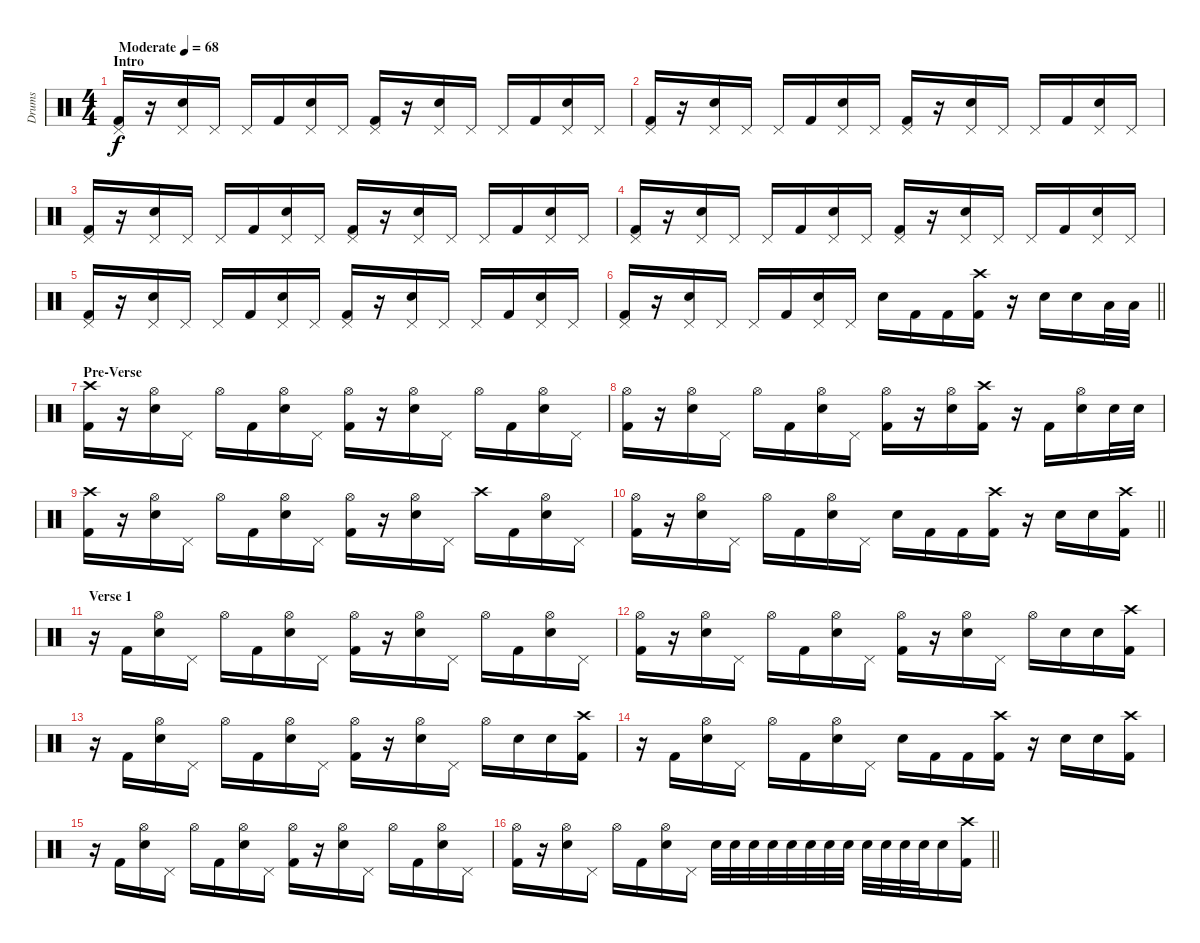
\track ("Drums" "Drums") {instrument percussion}
\staff {score}
\articulation defaults
\ts (4 4)
\section ("" "Intro")
\tempo (68 "Moderate")
\clef neutral
\ks c
("Pedal Hi-Hat (hit)" "Kick (hit) 2").16{dy f} r.16 ("Pedal Hi-Hat (hit)" "Snare (hit) 2").16 "Pedal Hi-Hat (hit)".16 "Pedal Hi-Hat (hit)".16 "Kick (hit) 2".16 ("Pedal Hi-Hat (hit)" "Snare (hit) 2").16 "Pedal Hi-Hat (hit)".16 ("Pedal Hi-Hat (hit)" "Kick (hit) 2").16 r.16 ("Pedal Hi-Hat (hit)" "Snare (hit) 2").16 "Pedal Hi-Hat (hit)".16 "Pedal Hi-Hat (hit)".16 "Kick (hit) 2".16 ("Pedal Hi-Hat (hit)" "Snare (hit) 2").16 "Pedal Hi-Hat (hit)".16 |
("Pedal Hi-Hat (hit)" "Kick (hit) 2").16 r.16 ("Pedal Hi-Hat (hit)" "Snare (hit) 2").16 "Pedal Hi-Hat (hit)".16 "Pedal Hi-Hat (hit)".16 "Kick (hit) 2".16 ("Pedal Hi-Hat (hit)" "Snare (hit) 2").16 "Pedal Hi-Hat (hit)".16 ("Pedal Hi-Hat (hit)" "Kick (hit) 2").16 r.16 ("Pedal Hi-Hat (hit)" "Snare (hit) 2").16 "Pedal Hi-Hat (hit)".16 "Pedal Hi-Hat (hit)".16 "Kick (hit) 2".16 ("Pedal Hi-Hat (hit)" "Snare (hit) 2").16 "Pedal Hi-Hat (hit)".16 |
("Pedal Hi-Hat (hit)" "Kick (hit) 2").16 r.16 ("Pedal Hi-Hat (hit)" "Snare (hit) 2").16 "Pedal Hi-Hat (hit)".16 "Pedal Hi-Hat (hit)".16 "Kick (hit) 2".16 ("Pedal Hi-Hat (hit)" "Snare (hit) 2").16 "Pedal Hi-Hat (hit)".16 ("Pedal Hi-Hat (hit)" "Kick (hit) 2").16 r.16 ("Pedal Hi-Hat (hit)" "Snare (hit) 2").16 "Pedal Hi-Hat (hit)".16 "Pedal Hi-Hat (hit)".16 "Kick (hit) 2".16 ("Pedal Hi-Hat (hit)" "Snare (hit) 2").16 "Pedal Hi-Hat (hit)".16 |
("Pedal Hi-Hat (hit)" "Kick (hit) 2").16 r.16 ("Pedal Hi-Hat (hit)" "Snare (hit) 2").16 "Pedal Hi-Hat (hit)".16 "Pedal Hi-Hat (hit)".16 "Kick (hit) 2".16 ("Pedal Hi-Hat (hit)" "Snare (hit) 2").16 "Pedal Hi-Hat (hit)".16 ("Pedal Hi-Hat (hit)" "Kick (hit) 2").16 r.16 ("Pedal Hi-Hat (hit)" "Snare (hit) 2").16 "Pedal Hi-Hat (hit)".16 "Pedal Hi-Hat (hit)".16 "Kick (hit) 2".16 ("Pedal Hi-Hat (hit)" "Snare (hit) 2").16 "Pedal Hi-Hat (hit)".16 |
("Pedal Hi-Hat (hit)" "Kick (hit) 2").16 r.16 ("Pedal Hi-Hat (hit)" "Snare (hit) 2").16 "Pedal Hi-Hat (hit)".16 "Pedal Hi-Hat (hit)".16 "Kick (hit) 2".16 ("Pedal Hi-Hat (hit)" "Snare (hit) 2").16 "Pedal Hi-Hat (hit)".16 ("Pedal Hi-Hat (hit)" "Kick (hit) 2").16 r.16 ("Pedal Hi-Hat (hit)" "Snare (hit) 2").16 "Pedal Hi-Hat (hit)".16 "Pedal Hi-Hat (hit)".16 "Kick (hit) 2".16 ("Pedal Hi-Hat (hit)" "Snare (hit) 2").16 "Pedal Hi-Hat (hit)".16 |
\barLineRight lightlight
("Pedal Hi-Hat (hit)" "Kick (hit) 2").16 r.16 ("Pedal Hi-Hat (hit)" "Snare (hit) 2").16 "Pedal Hi-Hat (hit)".16 "Pedal Hi-Hat (hit)".16 "Kick (hit) 2".16 ("Pedal Hi-Hat (hit)" "Snare (hit) 2").16 "Pedal Hi-Hat (hit)".16 "Snare (hit) 2".16 "Kick (hit) 2".16 "Kick (hit) 2".16 ("Crash high (hit)" "Kick (hit) 2").16 r.16 "Snare (hit) 2".16 "Snare (hit) 2".16 "Low Tom (hit)".32 "Low Tom (hit)".32 |
\section ("" "Pre-Verse")
("Crash high (hit)" "Kick (hit) 2").16 r.16 ("Hi-Hat (open)" "Snare (hit) 2").16 "Pedal Hi-Hat (hit)".16 "Hi-Hat (open)".16 "Kick (hit) 2".16 ("Hi-Hat (open)" "Snare (hit) 2").16 "Pedal Hi-Hat (hit)".16 ("Hi-Hat (open)" "Kick (hit) 2").16 r.16 ("Hi-Hat (open)" "Snare (hit) 2").16 "Pedal Hi-Hat (hit)".16 "Hi-Hat (open)".16 "Kick (hit) 2".16 ("Hi-Hat (open)" "Snare (hit) 2").16 "Pedal Hi-Hat (hit)".16 |
("Hi-Hat (open)" "Kick (hit) 2").16 r.16 ("Hi-Hat (open)" "Snare (hit) 2").16 "Pedal Hi-Hat (hit)".16 "Hi-Hat (open)".16 "Kick (hit) 2".16 ("Hi-Hat (open)" "Snare (hit) 2").16 "Pedal Hi-Hat (hit)".16 ("Hi-Hat (open)" "Kick (hit) 2").16 r.16 ("Hi-Hat (open)" "Snare (hit) 2").16 ("Crash high (hit)" "Kick (hit) 2").16 r.16 "Kick (hit) 2".16 ("Hi-Hat (open)" "Snare (hit) 2").16 "Snare (hit) 2".32 "Snare (hit) 2".32 |
("Crash high (hit)" "Kick (hit) 2").16 r.16 ("Hi-Hat (open)" "Snare (hit) 2").16 "Pedal Hi-Hat (hit)".16 "Hi-Hat (open)".16 "Kick (hit) 2".16 ("Hi-Hat (open)" "Snare (hit) 2").16 "Pedal Hi-Hat (hit)".16 ("Hi-Hat (open)" "Kick (hit) 2").16 r.16 ("Hi-Hat (open)" "Snare (hit) 2").16 "Pedal Hi-Hat (hit)".16 "Crash high (hit)".16 "Kick (hit) 2".16 ("Hi-Hat (open)" "Snare (hit) 2").16 "Pedal Hi-Hat (hit)".16 |
\barLineRight lightlight
("Hi-Hat (open)" "Kick (hit) 2").16 r.16 ("Hi-Hat (open)" "Snare (hit) 2").16 "Pedal Hi-Hat (hit)".16 "Hi-Hat (open)".16 "Kick (hit) 2".16 ("Hi-Hat (open)" "Snare (hit) 2").16 "Pedal Hi-Hat (hit)".16 "Snare (hit) 2".16 "Kick (hit) 2".16 "Kick (hit) 2".16 ("Crash high (hit)" "Kick (hit) 2").16 r.16 "Snare (hit) 2".16 "Snare (hit) 2".16 ("Crash high (hit)" "Kick (hit) 2").16 |
\section ("" "Verse 1")
r.16 "Kick (hit) 2".16 ("Hi-Hat (open)" "Snare (hit) 2").16 "Pedal Hi-Hat (hit)".16 "Hi-Hat (open)".16 "Kick (hit) 2".16 ("Hi-Hat (open)" "Snare (hit) 2").16 "Pedal Hi-Hat (hit)".16 ("Hi-Hat (open)" "Kick (hit) 2").16 r.16 ("Hi-Hat (open)" "Snare (hit) 2").16 "Pedal Hi-Hat (hit)".16 "Hi-Hat (open)".16 "Kick (hit) 2".16 ("Hi-Hat (open)" "Snare (hit) 2").16 "Pedal Hi-Hat (hit)".16 |
("Hi-Hat (open)" "Kick (hit) 2").16 r.16 ("Hi-Hat (open)" "Snare (hit) 2").16 "Pedal Hi-Hat (hit)".16 "Hi-Hat (open)".16 "Kick (hit) 2".16 ("Hi-Hat (open)" "Snare (hit) 2").16 "Pedal Hi-Hat (hit)".16 ("Hi-Hat (open)" "Kick (hit) 2").16 r.16 ("Hi-Hat (open)" "Snare (hit) 2").16 "Pedal Hi-Hat (hit)".16 "Hi-Hat (open)".16 "Snare (hit) 2".16 "Snare (hit) 2".16 ("Crash high (hit)" "Kick (hit) 2").16 |
r.16 "Kick (hit) 2".16 ("Hi-Hat (open)" "Snare (hit) 2").16 "Pedal Hi-Hat (hit)".16 "Hi-Hat (open)".16 "Kick (hit) 2".16 ("Hi-Hat (open)" "Snare (hit) 2").16 "Pedal Hi-Hat (hit)".16 ("Hi-Hat (open)" "Kick (hit) 2").16 r.16 ("Hi-Hat (open)" "Snare (hit) 2").16 "Pedal Hi-Hat (hit)".16 "Hi-Hat (open)".16 "Snare (hit) 2".16 "Snare (hit) 2".16 ("Crash high (hit)" "Kick (hit) 2").16 |
r.16 "Kick (hit) 2".16 ("Hi-Hat (open)" "Snare (hit) 2").16 "Pedal Hi-Hat (hit)".16 "Hi-Hat (open)".16 "Kick (hit) 2".16 ("Hi-Hat (open)" "Snare (hit) 2").16 "Pedal Hi-Hat (hit)".16 "Snare (hit) 2".16 "Kick (hit) 2".16 "Kick (hit) 2".16 ("Crash high (hit)" "Kick (hit) 2").16 r.16 "Snare (hit) 2".16 "Snare (hit) 2".16 ("Crash high (hit)" "Kick (hit) 2").16 |
r.16 "Kick (hit) 2".16 ("Hi-Hat (open)" "Snare (hit) 2").16 "Pedal Hi-Hat (hit)".16 "Hi-Hat (open)".16 "Kick (hit) 2".16 ("Hi-Hat (open)" "Snare (hit) 2").16 "Pedal Hi-Hat (hit)".16 ("Hi-Hat (open)" "Kick (hit) 2").16 r.16 ("Hi-Hat (open)" "Snare (hit) 2").16 "Pedal Hi-Hat (hit)".16 "Hi-Hat (open)".16 "Kick (hit) 2".16 ("Hi-Hat (open)" "Snare (hit) 2").16 "Pedal Hi-Hat (hit)".16 |
\barLineRight lightlight
("Hi-Hat (open)" "Kick (hit) 2").16 r.16 ("Hi-Hat (open)" "Snare (hit) 2").16 "Pedal Hi-Hat (hit)".16 "Hi-Hat (open)".16 "Kick (hit) 2".16 ("Hi-Hat (open)" "Snare (hit) 2").16 "Pedal Hi-Hat (hit)".16 "Snare (hit) 2".32 "Snare (hit) 2".32 "Snare (hit) 2".32 "Snare (hit) 2".32 "Snare (hit) 2".32 "Snare (hit) 2".32 "Snare (hit) 2".32 "Snare (hit) 2".32 "Snare (hit) 2".32 "Snare (hit) 2".32 "Snare (hit) 2".32 "Snare (hit) 2".32 "Snare (hit) 2".16 ("Crash high (hit)" "Kick (hit) 2").16
